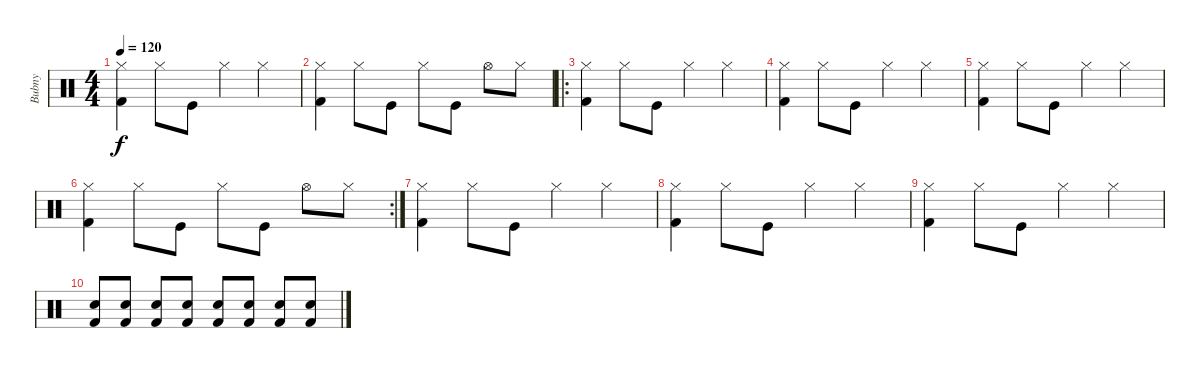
\track ("Bubny" "Bubny") {instrument percussion}
\staff {score}
\articulation defaults
\ts (4 4)
\tempo 120
\clef neutral
\ks c
("Hi-Hat (closed)" "Kick (hit) 2").4{dy f} "Hi-Hat (closed)".8 "Kick (hit)".8 "Hi-Hat (closed)".4 "Hi-Hat (closed)".4 |
("Hi-Hat (closed)" "Kick (hit) 2").4 "Hi-Hat (closed)".8 "Kick (hit)".8 "Hi-Hat (closed)".8 "Kick (hit)".8 "Hi-Hat (open)".8 "Hi-Hat (closed)".8 |
\ro
("Hi-Hat (closed)" "Kick (hit) 2").4 "Hi-Hat (closed)".8 "Kick (hit)".8 "Hi-Hat (closed)".4 "Hi-Hat (closed)".4 |
("Hi-Hat (closed)" "Kick (hit) 2").4 "Hi-Hat (closed)".8 "Kick (hit)".8 "Hi-Hat (closed)".4 "Hi-Hat (closed)".4 |
("Hi-Hat (closed)" "Kick (hit) 2").4 "Hi-Hat (closed)".8 "Kick (hit)".8 "Hi-Hat (closed)".4 "Hi-Hat (closed)".4 |
\rc 2
("Hi-Hat (closed)" "Kick (hit) 2").4 "Hi-Hat (closed)".8 "Kick (hit)".8 "Hi-Hat (closed)".8 "Kick (hit)".8 "Hi-Hat (open)".8 "Hi-Hat (closed)".8 |
("Hi-Hat (closed)" "Kick (hit) 2").4 "Hi-Hat (closed)".8 "Kick (hit)".8 "Hi-Hat (closed)".4 "Hi-Hat (closed)".4 |
("Hi-Hat (closed)" "Kick (hit) 2").4 "Hi-Hat (closed)".8 "Kick (hit)".8 "Hi-Hat (closed)".4 "Hi-Hat (closed)".4 |
("Hi-Hat (closed)" "Kick (hit) 2").4 "Hi-Hat (closed)".8 "Kick (hit)".8 "Hi-Hat (closed)".4 "Hi-Hat (closed)".4 |
("Kick (hit) 2" "Snare (hit) 2").8 ("Kick (hit) 2" "Snare (hit) 2").8 ("Kick (hit) 2" "Snare (hit) 2").8 ("Kick (hit) 2" "Snare (hit) 2").8 ("Kick (hit) 2" "Snare (hit) 2").8 ("Kick (hit) 2" "Snare (hit) 2").8 ("Kick (hit) 2" "Snare (hit) 2").8 ("Kick (hit) 2" "Snare (hit) 2").8
